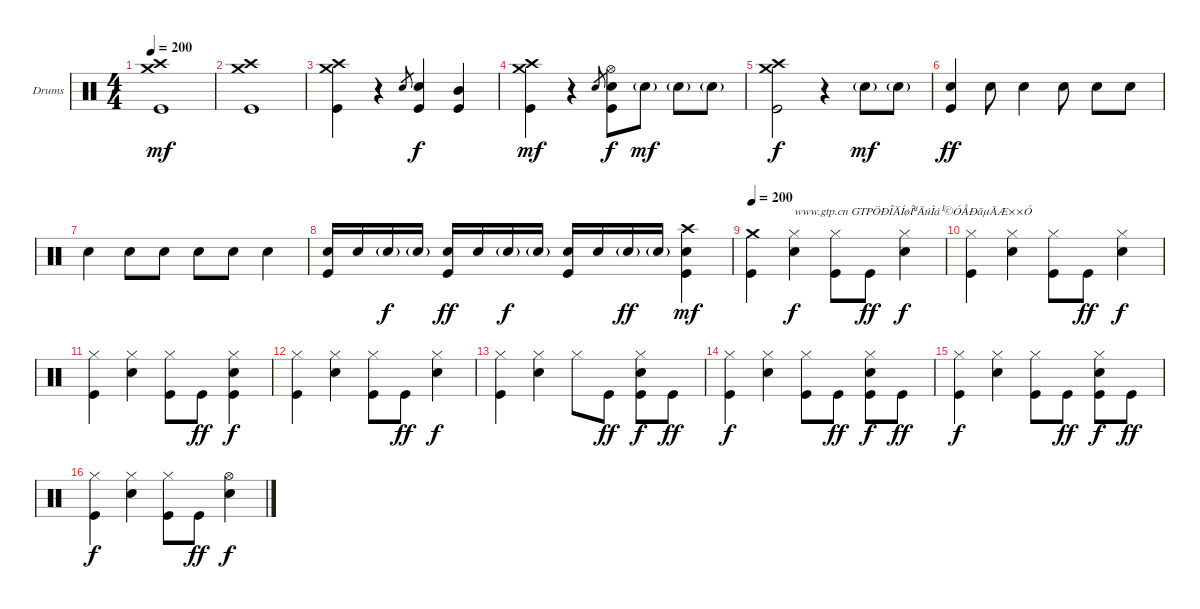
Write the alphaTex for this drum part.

\bracketExtendMode groupsimilarinstruments
\firstSystemTrackNameOrientation horizontal
\otherSystemsTrackNameOrientation horizontal
\track ("Drumkit" "Drums") {instrument percussion}
\staff {score}
\articulation defaults
\ts (4 4)
\tempo 200
\clef neutral
\ks c
("Crash medium (hit)" "Crash high (hit)" "Kick (hit)").1{dy mf} |
("Crash medium (hit)" "Crash high (hit)" "Kick (hit)").1 |
("Crash medium (hit)" "Crash high (hit)" "Kick (hit)").4 r.4 "Snare (hit) 2".8{gr} ("Snare (hit) 2" "Kick (hit)").4{dy f} ("Mid Tom (hit)" "Kick (hit)").4 |
("Crash medium (hit)" "Crash high (hit)" "Kick (hit)").4{dy mf} r.4 "Snare (hit) 2".8{gr} ("Hi-Hat (open)" "Snare (hit) 2" "Kick (hit)").8{dy f} "Snare (hit) 2"{g}.8{dy mf} "Snare (hit) 2"{g}.8 "Snare (hit) 2"{g}.8 |
("Crash medium (hit)" "Crash high (hit)" "Kick (hit)").2{dy f} r.4 "Snare (hit) 2"{g}.8{dy mf} "Snare (hit) 2"{g}.8 |
("Snare (hit) 2" "Kick (hit)").4{dy ff} "Snare (hit) 2".8 "Snare (hit) 2".4 "Snare (hit) 2".8 "Snare (hit) 2".8 "Snare (hit) 2".8 |
"Snare (hit) 2".4 "Snare (hit) 2".8 "Snare (hit) 2".8 "Snare (hit) 2".8 "Snare (hit) 2".8 "Snare (hit) 2".4 |
("Snare (hit) 2" "Kick (hit)").16 "Snare (hit) 2".16 "Snare (hit) 2"{g}.16{dy f} "Snare (hit) 2"{g}.16 ("Snare (hit) 2" "Kick (hit)").16{dy ff} "Snare (hit) 2".16 "Snare (hit) 2"{g}.16{dy f} "Snare (hit) 2"{g}.16 ("Snare (hit) 2" "Kick (hit)").16 "Snare (hit) 2".16 "Snare (hit) 2"{g}.16{dy ff} "Snare (hit) 2"{g}.16 ("Crash high (hit)" "Snare (hit) 2" "Kick (hit)").4{dy mf} |
\tempo 200
("Crash medium (hit)" "Kick (hit)").4 ("Hi-Hat (closed)" "Snare (hit) 2").4{txt "www.gtp.cn GTPÖÐÎÄÍøÎªÄúÌá¹©ÓÅÐãµÄÆ××Ó" dy f} ("Hi-Hat (closed)" "Kick (hit)").8 "Kick (hit)".8{dy ff} ("Hi-Hat (closed)" "Snare (hit) 2").4{dy f} |
("Hi-Hat (closed)" "Kick (hit)").4 ("Hi-Hat (closed)" "Snare (hit) 2").4 ("Hi-Hat (closed)" "Kick (hit)").8 "Kick (hit)".8{dy ff} ("Hi-Hat (closed)" "Snare (hit) 2").4{dy f} |
("Hi-Hat (closed)" "Kick (hit)").4 ("Hi-Hat (closed)" "Snare (hit) 2").4 ("Hi-Hat (closed)" "Kick (hit)").8 "Kick (hit)".8{dy ff} ("Hi-Hat (closed)" "Snare (hit) 2" "Kick (hit)").4{dy f} |
("Hi-Hat (closed)" "Kick (hit)").4 ("Hi-Hat (closed)" "Snare (hit) 2").4 ("Hi-Hat (closed)" "Kick (hit)").8 "Kick (hit)".8{dy ff} ("Hi-Hat (closed)" "Snare (hit) 2").4{dy f} |
("Hi-Hat (closed)" "Kick (hit)").4 ("Hi-Hat (closed)" "Snare (hit) 2").4 "Hi-Hat (closed)".8 "Kick (hit)".8{dy ff} ("Hi-Hat (closed)" "Snare (hit) 2" "Kick (hit)").8{dy f} "Kick (hit)".8{dy ff} |
("Hi-Hat (closed)" "Kick (hit)").4{dy f} ("Hi-Hat (closed)" "Snare (hit) 2").4 ("Hi-Hat (closed)" "Kick (hit)").8 "Kick (hit)".8{dy ff} ("Hi-Hat (closed)" "Snare (hit) 2" "Kick (hit)").8{dy f} "Kick (hit)".8{dy ff} |
("Hi-Hat (closed)" "Kick (hit)").4{dy f} ("Hi-Hat (closed)" "Snare (hit) 2").4 ("Hi-Hat (closed)" "Kick (hit)").8 "Kick (hit)".8{dy ff} ("Hi-Hat (closed)" "Snare (hit) 2" "Kick (hit)").8{dy f} "Kick (hit)".8{dy ff} |
("Hi-Hat (closed)" "Kick (hit)").4{dy f} ("Hi-Hat (closed)" "Snare (hit) 2").4 ("Hi-Hat (closed)" "Kick (hit)").8 "Kick (hit)".8{dy ff} ("Hi-Hat (open)" "Snare (hit) 2").4{dy f}
